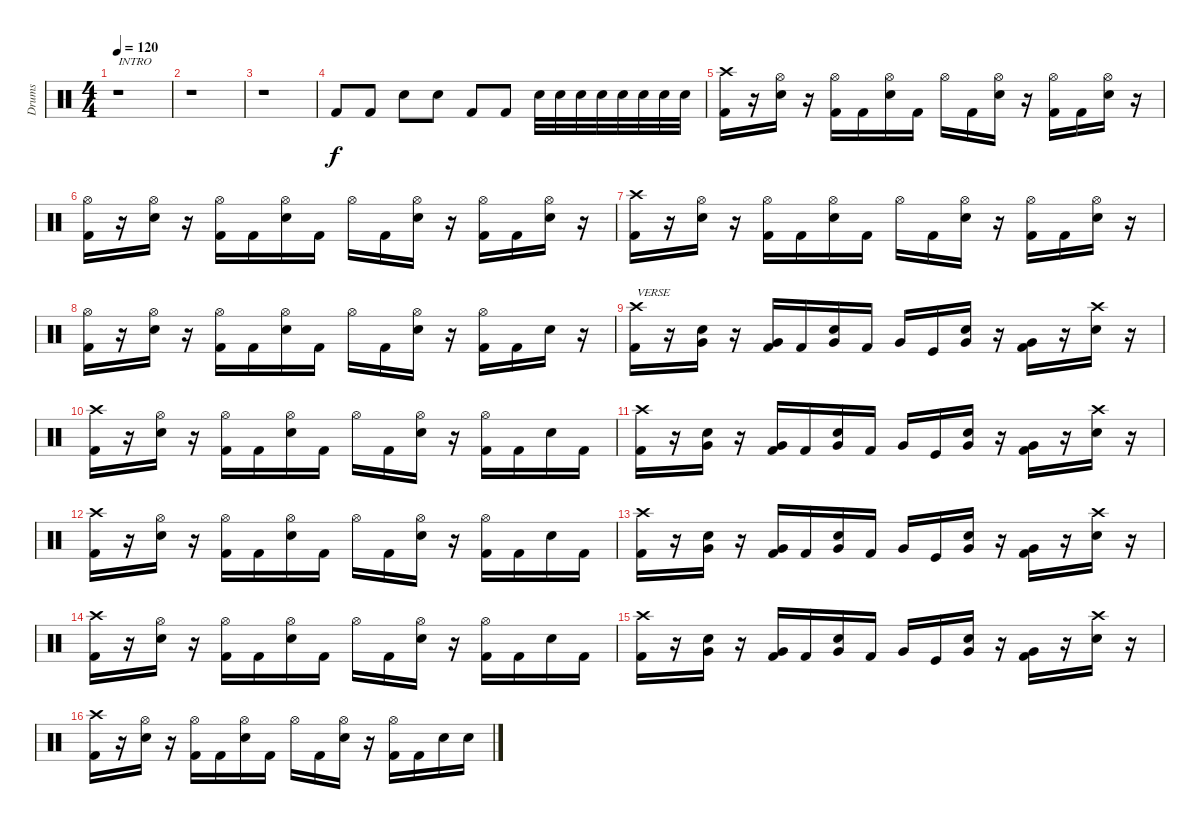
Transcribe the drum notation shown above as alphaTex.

\track ("Drums" "Drums") {instrument percussion}
\staff {score}
\articulation defaults
\ts (4 4)
\tempo 120
\clef neutral
\ks c
r.1{txt "INTRO" dy f} |
r.1 |
r.1 |
"Kick (hit) 2".8 "Kick (hit) 2".8 "Snare (hit) 2".8 "Snare (hit) 2".8 "Kick (hit) 2".8 "Kick (hit) 2".8 "Snare (hit) 2".32 "Snare (hit) 2".32 "Snare (hit) 2".32 "Snare (hit) 2".32 "Snare (hit) 2".32 "Snare (hit) 2".32 "Snare (hit) 2".32 "Snare (hit) 2".32 |
("Crash high (hit)" "Kick (hit) 2").16 r.16 ("Hi-Hat (open)" "Snare (hit) 2").16 r.16 ("Hi-Hat (open)" "Kick (hit) 2").16 "Kick (hit) 2".16 ("Hi-Hat (open)" "Snare (hit) 2").16 "Kick (hit) 2".16 "Hi-Hat (open)".16 "Kick (hit) 2".16 ("Hi-Hat (open)" "Snare (hit) 2").16 r.16 ("Hi-Hat (open)" "Kick (hit) 2").16 "Kick (hit) 2".16 ("Hi-Hat (open)" "Snare (hit) 2").16 r.16 |
("Hi-Hat (open)" "Kick (hit) 2").16 r.16 ("Hi-Hat (open)" "Snare (hit) 2").16 r.16 ("Hi-Hat (open)" "Kick (hit) 2").16 "Kick (hit) 2".16 ("Hi-Hat (open)" "Snare (hit) 2").16 "Kick (hit) 2".16 "Hi-Hat (open)".16 "Kick (hit) 2".16 ("Hi-Hat (open)" "Snare (hit) 2").16 r.16 ("Hi-Hat (open)" "Kick (hit) 2").16 "Kick (hit) 2".16 ("Hi-Hat (open)" "Snare (hit) 2").16 r.16 |
("Crash high (hit)" "Kick (hit) 2").16 r.16 ("Hi-Hat (open)" "Snare (hit) 2").16 r.16 ("Hi-Hat (open)" "Kick (hit) 2").16 "Kick (hit) 2".16 ("Hi-Hat (open)" "Snare (hit) 2").16 "Kick (hit) 2".16 "Hi-Hat (open)".16 "Kick (hit) 2".16 ("Hi-Hat (open)" "Snare (hit) 2").16 r.16 ("Hi-Hat (open)" "Kick (hit) 2").16 "Kick (hit) 2".16 ("Hi-Hat (open)" "Snare (hit) 2").16 r.16 |
("Hi-Hat (open)" "Kick (hit) 2").16 r.16 ("Hi-Hat (open)" "Snare (hit) 2").16 r.16 ("Hi-Hat (open)" "Kick (hit) 2").16 "Kick (hit) 2".16 ("Hi-Hat (open)" "Snare (hit) 2").16 "Kick (hit) 2".16 "Hi-Hat (open)".16 "Kick (hit) 2".16 ("Hi-Hat (open)" "Snare (hit) 2").16 r.16 ("Hi-Hat (open)" "Kick (hit) 2").16 "Kick (hit) 2".16 "Snare (hit) 2".16 r.16 |
("Crash high (hit)" "Kick (hit) 2").16{txt "VERSE"} r.16 ("Snare (hit) 2" "Very Low Tom (hit)").16 r.16 ("Very Low Tom (hit)" "Kick (hit) 2").16 "Kick (hit) 2".16 ("Snare (hit) 2" "Very Low Tom (hit)").16 "Kick (hit) 2".16 "Very Low Tom (hit)".16 "Kick (hit)".16 ("Snare (hit) 2" "Very Low Tom (hit)").16 r.16 ("Very Low Tom (hit)" "Kick (hit) 2").16 r.16 ("Crash high (hit)" "Snare (hit) 2").16 r.16 |
("Crash high (hit)" "Kick (hit) 2").16 r.16 ("Hi-Hat (open)" "Snare (hit) 2").16 r.16 ("Hi-Hat (open)" "Kick (hit) 2").16 "Kick (hit) 2".16 ("Hi-Hat (open)" "Snare (hit) 2").16 "Kick (hit) 2".16 "Hi-Hat (open)".16 "Kick (hit) 2".16 ("Hi-Hat (open)" "Snare (hit) 2").16 r.16 ("Hi-Hat (open)" "Kick (hit) 2").16 "Kick (hit) 2".16 "Snare (hit) 2".16 "Kick (hit) 2".16 |
("Crash high (hit)" "Kick (hit) 2").16 r.16 ("Snare (hit) 2" "Very Low Tom (hit)").16 r.16 ("Very Low Tom (hit)" "Kick (hit) 2").16 "Kick (hit) 2".16 ("Snare (hit) 2" "Very Low Tom (hit)").16 "Kick (hit) 2".16 "Very Low Tom (hit)".16 "Kick (hit)".16 ("Snare (hit) 2" "Very Low Tom (hit)").16 r.16 ("Very Low Tom (hit)" "Kick (hit) 2").16 r.16 ("Crash high (hit)" "Snare (hit) 2").16 r.16 |
("Crash high (hit)" "Kick (hit) 2").16 r.16 ("Hi-Hat (open)" "Snare (hit) 2").16 r.16 ("Hi-Hat (open)" "Kick (hit) 2").16 "Kick (hit) 2".16 ("Hi-Hat (open)" "Snare (hit) 2").16 "Kick (hit) 2".16 "Hi-Hat (open)".16 "Kick (hit) 2".16 ("Hi-Hat (open)" "Snare (hit) 2").16 r.16 ("Hi-Hat (open)" "Kick (hit) 2").16 "Kick (hit) 2".16 "Snare (hit) 2".16 "Kick (hit) 2".16 |
("Crash high (hit)" "Kick (hit) 2").16 r.16 ("Snare (hit) 2" "Very Low Tom (hit)").16 r.16 ("Very Low Tom (hit)" "Kick (hit) 2").16 "Kick (hit) 2".16 ("Snare (hit) 2" "Very Low Tom (hit)").16 "Kick (hit) 2".16 "Very Low Tom (hit)".16 "Kick (hit)".16 ("Snare (hit) 2" "Very Low Tom (hit)").16 r.16 ("Very Low Tom (hit)" "Kick (hit) 2").16 r.16 ("Crash high (hit)" "Snare (hit) 2").16 r.16 |
("Crash high (hit)" "Kick (hit) 2").16 r.16 ("Hi-Hat (open)" "Snare (hit) 2").16 r.16 ("Hi-Hat (open)" "Kick (hit) 2").16 "Kick (hit) 2".16 ("Hi-Hat (open)" "Snare (hit) 2").16 "Kick (hit) 2".16 "Hi-Hat (open)".16 "Kick (hit) 2".16 ("Hi-Hat (open)" "Snare (hit) 2").16 r.16 ("Hi-Hat (open)" "Kick (hit) 2").16 "Kick (hit) 2".16 "Snare (hit) 2".16 "Kick (hit) 2".16 |
("Crash high (hit)" "Kick (hit) 2").16 r.16 ("Snare (hit) 2" "Very Low Tom (hit)").16 r.16 ("Very Low Tom (hit)" "Kick (hit) 2").16 "Kick (hit) 2".16 ("Snare (hit) 2" "Very Low Tom (hit)").16 "Kick (hit) 2".16 "Very Low Tom (hit)".16 "Kick (hit)".16 ("Snare (hit) 2" "Very Low Tom (hit)").16 r.16 ("Very Low Tom (hit)" "Kick (hit) 2").16 r.16 ("Crash high (hit)" "Snare (hit) 2").16 r.16 |
("Crash high (hit)" "Kick (hit) 2").16 r.16 ("Hi-Hat (open)" "Snare (hit) 2").16 r.16 ("Hi-Hat (open)" "Kick (hit) 2").16 "Kick (hit) 2".16 ("Hi-Hat (open)" "Snare (hit) 2").16 "Kick (hit) 2".16 "Hi-Hat (open)".16 "Kick (hit) 2".16 ("Hi-Hat (open)" "Snare (hit) 2").16 r.16 ("Hi-Hat (open)" "Kick (hit) 2").16 "Kick (hit) 2".16 "Snare (hit) 2".16 "Snare (hit) 2".16
